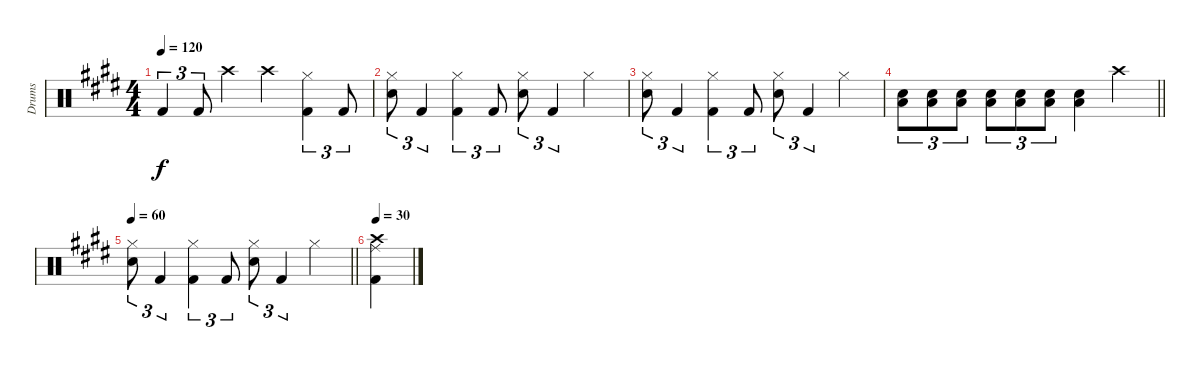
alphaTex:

\track ("Drums" "Drums") {instrument percussion}
\staff {score}
\articulation defaults
\ts (4 4)
\tempo 120
\clef neutral
\ks c#minor "Kick (hit) 2".4{tu (3 2) dy f} "Kick (hit) 2".8{tu (3 2)} "Crash high (hit)".4 "Crash high (hit)".4
("Hi-Hat (closed)" "Kick (hit) 2").4{tu (3 2)} "Kick (hit) 2".8{tu (3 2)} |
("Hi-Hat (closed)" "Electric Snare (hit)").8{tu (3 2)} "Kick (hit) 2".4{tu (3 2)} ("Hi-Hat (closed)" "Kick (hit) 2").4{tu (3 2)} "Kick (hit) 2".8{tu (3 2)} ("Hi-Hat (closed)" "Electric Snare (hit)").8{tu (3 2)} "Kick (hit) 2".4{tu (3 2)} "Hi-Hat (closed)".4 |
("Hi-Hat (closed)" "Electric Snare (hit)").8{tu (3 2)} "Kick (hit) 2".4{tu (3 2)} ("Hi-Hat (closed)" "Kick (hit) 2").4{tu (3 2)} "Kick (hit) 2".8{tu (3 2)} ("Hi-Hat (closed)" "Electric Snare (hit)").8{tu (3 2)} "Kick (hit) 2".4{tu (3 2)} "Hi-Hat (closed)".4 |
\barLineRight lightlight
("Electric Snare (hit)" "Low Tom (hit)").8{tu (3 2)} ("Electric Snare (hit)" "Low Tom (hit)").8{tu (3 2)} ("Electric Snare (hit)" "Low Tom (hit)").8{tu (3 2)} ("Electric Snare (hit)" "Low Tom (hit)").8{tu (3 2)} ("Electric Snare (hit)" "Low Tom (hit)").8{tu (3 2)} ("Electric Snare (hit)" "Low Tom (hit)").8{tu (3 2)} ("Electric Snare (hit)" "Low Tom (hit)").4 "Crash high (hit)".4 |
\tempo 60
\barLineRight lightlight
("Hi-Hat (closed)" "Electric Snare (hit)").8{tu (3 2)} "Kick (hit) 2".4{tu (3 2)} ("Hi-Hat (closed)" "Kick (hit) 2").4{tu (3 2)} "Kick (hit) 2".8{tu (3 2)} ("Hi-Hat (closed)" "Electric Snare (hit)").8{tu (3 2)} "Kick (hit) 2".4{tu (3 2)} "Hi-Hat (closed)".4 |
\tempo 30
("Ride (middle)" "Crash high (hit)" "Kick (hit) 2").4
